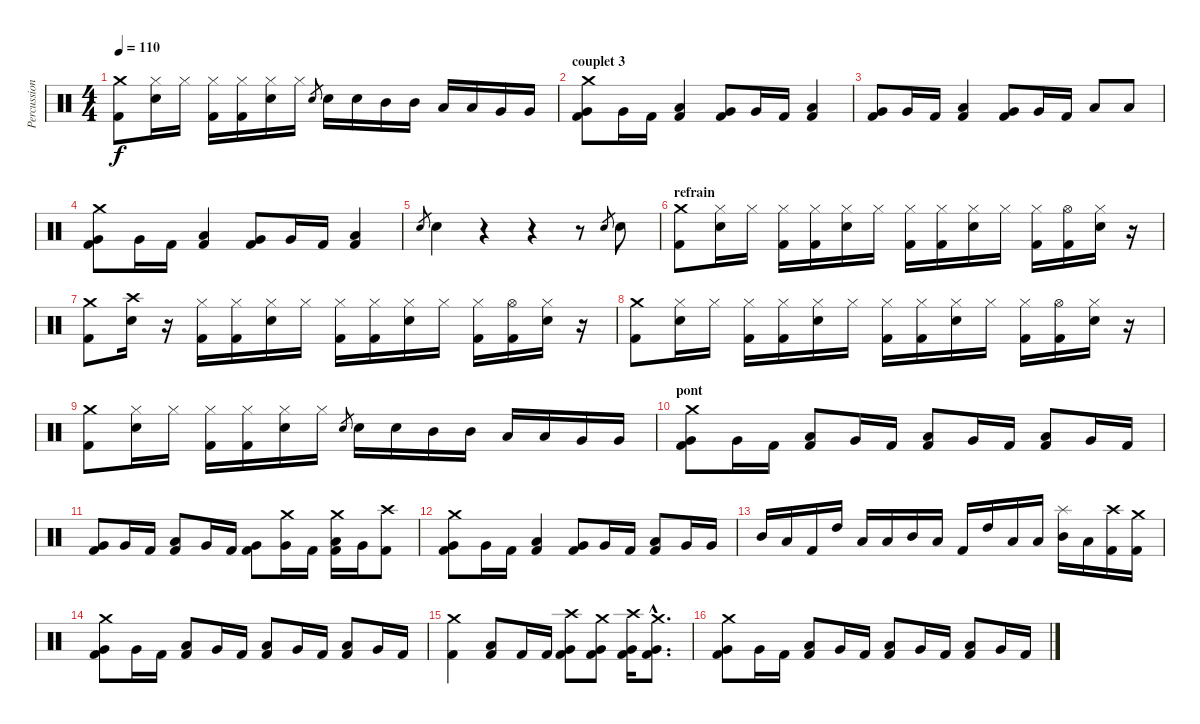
\track ("Percussions" "Percussion") {instrument percussion}
\staff {score}
\articulation defaults
\ts (4 4)
\tempo 110
\clef neutral
\ks c
("Crash medium (hit)" "Kick (hit) 2").8{dy f} ("Hi-Hat (closed)" "Electric Snare (hit)").16 "Hi-Hat (closed)".16 ("Hi-Hat (closed)" "Kick (hit) 2").16 ("Hi-Hat (closed)" "Kick (hit) 2").16 ("Hi-Hat (closed)" "Electric Snare (hit)").16 "Hi-Hat (closed)".16 "Electric Snare (hit)".8{gr} "Electric Snare (hit)".16 "Electric Snare (hit)".16 "Mid Tom (hit)".16 "Mid Tom (hit)".16 "Low Tom (hit)".16 "Low Tom (hit)".16 "Very Low Tom (hit)".16 "Very Low Tom (hit)".16 |
\section ("" "couplet 3")
("Crash medium (hit)" "Very Low Tom (hit)" "Kick (hit) 2").8 "Very Low Tom (hit)".16 "Kick (hit) 2".16 ("Low Tom (hit)" "Kick (hit) 2").4 ("Very Low Tom (hit)" "Kick (hit) 2").8 "Very Low Tom (hit)".16 "Kick (hit) 2".16 ("Low Tom (hit)" "Kick (hit) 2").4 |
("Very Low Tom (hit)" "Kick (hit) 2").8 "Very Low Tom (hit)".16 "Kick (hit) 2".16 ("Low Tom (hit)" "Kick (hit) 2").4 ("Very Low Tom (hit)" "Kick (hit) 2").8 "Very Low Tom (hit)".16 "Kick (hit) 2".16 "Low Tom (hit)".8 "Low Tom (hit)".8 |
("Crash medium (hit)" "Very Low Tom (hit)" "Kick (hit) 2").8 "Very Low Tom (hit)".16 "Kick (hit) 2".16 ("Low Tom (hit)" "Kick (hit) 2").4 ("Very Low Tom (hit)" "Kick (hit) 2").8 "Very Low Tom (hit)".16 "Kick (hit) 2".16 ("Low Tom (hit)" "Kick (hit) 2").4 |
"Electric Snare (hit)".8{gr} "Electric Snare (hit)".4 r.4 r.4 r.8 "Electric Snare (hit)".8{gr} "Electric Snare (hit)".8 |
\section ("" "refrain")
("Crash medium (hit)" "Kick (hit) 2").8 ("Hi-Hat (closed)" "Electric Snare (hit)").16 "Hi-Hat (closed)".16 ("Hi-Hat (closed)" "Kick (hit) 2").16 ("Hi-Hat (closed)" "Kick (hit) 2").16 ("Hi-Hat (closed)" "Electric Snare (hit)").16 "Hi-Hat (closed)".16 ("Hi-Hat (closed)" "Kick (hit) 2").16 ("Hi-Hat (closed)" "Kick (hit) 2").16 ("Hi-Hat (closed)" "Electric Snare (hit)").16 "Hi-Hat (closed)".16 ("Hi-Hat (closed)" "Kick (hit) 2").16 ("Hi-Hat (open)" "Kick (hit) 2").16 ("Hi-Hat (closed)" "Electric Snare (hit)").16 r.16 |
("Crash medium (hit)" "Kick (hit) 2").8 ("Crash high (hit)" "Electric Snare (hit)").16 r.16 ("Hi-Hat (closed)" "Kick (hit) 2").16 ("Hi-Hat (closed)" "Kick (hit) 2").16 ("Hi-Hat (closed)" "Electric Snare (hit)").16 "Hi-Hat (closed)".16 ("Hi-Hat (closed)" "Kick (hit) 2").16 ("Hi-Hat (closed)" "Kick (hit) 2").16 ("Hi-Hat (closed)" "Electric Snare (hit)").16 "Hi-Hat (closed)".16 ("Hi-Hat (closed)" "Kick (hit) 2").16 ("Hi-Hat (open)" "Kick (hit) 2").16 ("Hi-Hat (closed)" "Electric Snare (hit)").16 r.16 |
("Crash medium (hit)" "Kick (hit) 2").8 ("Hi-Hat (closed)" "Electric Snare (hit)").16 "Hi-Hat (closed)".16 ("Hi-Hat (closed)" "Kick (hit) 2").16 ("Hi-Hat (closed)" "Kick (hit) 2").16 ("Hi-Hat (closed)" "Electric Snare (hit)").16 "Hi-Hat (closed)".16 ("Hi-Hat (closed)" "Kick (hit) 2").16 ("Hi-Hat (closed)" "Kick (hit) 2").16 ("Hi-Hat (closed)" "Electric Snare (hit)").16 "Hi-Hat (closed)".16 ("Hi-Hat (closed)" "Kick (hit) 2").16 ("Hi-Hat (open)" "Kick (hit) 2").16 ("Hi-Hat (closed)" "Electric Snare (hit)").16 r.16 |
("Crash medium (hit)" "Kick (hit) 2").8 ("Hi-Hat (closed)" "Electric Snare (hit)").16 "Hi-Hat (closed)".16 ("Hi-Hat (closed)" "Kick (hit) 2").16 ("Hi-Hat (closed)" "Kick (hit) 2").16 ("Hi-Hat (closed)" "Electric Snare (hit)").16 "Hi-Hat (closed)".16 "Electric Snare (hit)".8{gr} "Electric Snare (hit)".16 "Electric Snare (hit)".16 "Mid Tom (hit)".16 "Mid Tom (hit)".16 "Low Tom (hit)".16 "Low Tom (hit)".16 "Very Low Tom (hit)".16 "Very Low Tom (hit)".16 |
\section ("" "pont")
("Crash medium (hit)" "Very Low Tom (hit)" "Kick (hit) 2").8 "Very Low Tom (hit)".16 "Kick (hit) 2".16 ("Low Tom (hit)" "Kick (hit) 2").8 "Very Low Tom (hit)".16 "Kick (hit) 2".16 ("Low Tom (hit)" "Kick (hit) 2").8 "Very Low Tom (hit)".16 "Kick (hit) 2".16 ("Low Tom (hit)" "Kick (hit) 2").8 "Very Low Tom (hit)".16 "Kick (hit) 2".16 |
("Very Low Tom (hit)" "Kick (hit) 2").8 "Very Low Tom (hit)".16 "Kick (hit) 2".16 ("Low Tom (hit)" "Kick (hit) 2").8 "Very Low Tom (hit)".16 "Kick (hit) 2".16 ("Very Low Tom (hit)" "Kick (hit) 2").8 ("Crash medium (hit)" "Very Low Tom (hit)").16 "Kick (hit) 2".16 ("Crash medium (hit)" "Low Tom (hit)" "Kick (hit) 2").16 "Very Low Tom (hit)".16 ("Crash high (hit)" "Kick (hit) 2").8 |
("Crash medium (hit)" "Very Low Tom (hit)" "Kick (hit) 2").8 "Very Low Tom (hit)".16 "Kick (hit) 2".16 ("Low Tom (hit)" "Kick (hit) 2").4 ("Very Low Tom (hit)" "Kick (hit) 2").8 "Very Low Tom (hit)".16 "Kick (hit) 2".16 ("Low Tom (hit)" "Kick (hit) 2").8 "Very Low Tom (hit)".16 "Very Low Tom (hit)".16 |
"Mid Tom (hit)".16 "Low Tom (hit)".16 "Kick (hit) 2".16 "High Tom (hit)".16 "Low Tom (hit)".16 "Low Tom (hit)".16 "Mid Tom (hit)".16 "Low Tom (hit)".16 "Kick (hit) 2".16 "High Tom (hit)".16 "Low Tom (hit)".16 "Low Tom (hit)".16 ("Splash (hit)" "Mid Tom (hit)").16 "Low Tom (hit)".16 ("Crash high (hit)" "Kick (hit) 2").16 ("Crash medium (hit)" "Kick (hit) 2").16 |
("Crash medium (hit)" "Very Low Tom (hit)" "Kick (hit) 2").8 "Very Low Tom (hit)".16 "Kick (hit) 2".16 ("Low Tom (hit)" "Kick (hit) 2").8 "Very Low Tom (hit)".16 "Kick (hit) 2".16 ("Low Tom (hit)" "Kick (hit) 2").8 "Very Low Tom (hit)".16 "Kick (hit) 2".16 ("Low Tom (hit)" "Kick (hit) 2").8 "Very Low Tom (hit)".16 "Kick (hit) 2".16 |
("Crash medium (hit)" "Kick (hit) 2").4 ("Low Tom (hit)" "Kick (hit) 2").8 "Kick (hit) 2".16 "Kick (hit) 2".16 ("Crash high (hit)" "Very Low Tom (hit)" "Kick (hit) 2").8 ("Crash medium (hit)" "Very Low Tom (hit)" "Kick (hit) 2").8 ("Crash high (hit)" "Very Low Tom (hit)" "Kick (hit) 2").16 ("Crash medium (hit)"{hac} "Very Low Tom (hit)"{hac} "Kick (hit) 2"{hac}).8{d} |
("Crash medium (hit)" "Very Low Tom (hit)" "Kick (hit) 2").8 "Very Low Tom (hit)".16 "Kick (hit) 2".16 ("Low Tom (hit)" "Kick (hit) 2").8 "Very Low Tom (hit)".16 "Kick (hit) 2".16 ("Low Tom (hit)" "Kick (hit) 2").8 "Very Low Tom (hit)".16 "Kick (hit) 2".16 ("Low Tom (hit)" "Kick (hit) 2").8 "Very Low Tom (hit)".16 "Kick (hit) 2".16
